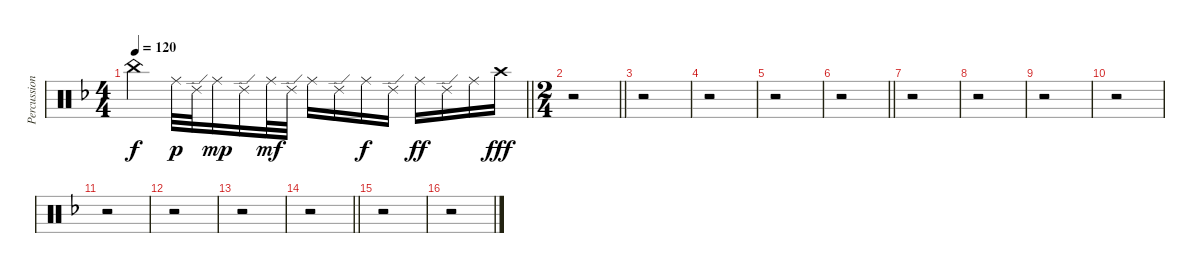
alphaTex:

\track ("Percussion" "Percussion") {instrument percussion}
\staff {score}
\articulation defaults
\ts (4 4)
\tempo 120
\clef neutral
\barLineRight lightlight
\ks dminor "China (hit)".4{dy f} "Ride (middle)".32{dy p} "Ride (edge) 2".32 "Ride (middle)".16{dy mp} "Ride (edge) 2".16 "Ride (middle)".32{dy mf} "Ride (edge) 2".32 "Ride (middle)".16 "Ride (edge) 2".16 "Ride (middle)".16{dy f} "Ride (edge) 2".16 "Ride (middle)".16{dy ff} "Ride (edge) 2".16 "Ride (middle)".16 "Crash high (hit)".16{dy fff}
|
\ts (2 4)
\barLineRight lightlight
r.2 |
r.2 |
r.2 |
r.2 |
\barLineRight lightlight
r.2 |
r.2 |
r.2 |
r.2 |
r.2 |
r.2 |
r.2 |
r.2 |
\barLineRight lightlight
r.2 |
r.2 |
r.2
